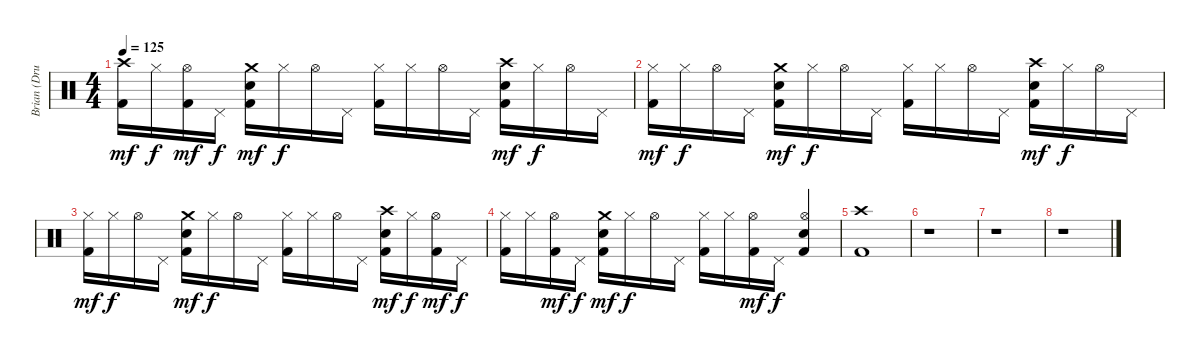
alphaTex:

\track ("Brian (Drums)" "Brian (Dru") {instrument percussion}
\staff {score}
\articulation defaults
\ts (4 4)
\tempo 125
\clef neutral
\ks c
("Crash high (hit)" "Kick (hit) 2").16{dy mf} "Hi-Hat (closed)".16{dy f} ("Hi-Hat (open)" "Kick (hit) 2").16{dy mf} "Pedal Hi-Hat (hit)".16{dy f} ("Crash medium (hit)" "Electric Snare (hit)" "Kick (hit) 2").16{dy mf} "Hi-Hat (closed)".16{dy f} "Hi-Hat (open)".16 "Pedal Hi-Hat (hit)".16 ("Hi-Hat (closed)" "Kick (hit) 2").16 "Hi-Hat (closed)".16 "Hi-Hat (open)".16 "Pedal Hi-Hat (hit)".16 ("Crash high (hit)" "Electric Snare (hit)" "Kick (hit) 2").16{dy mf} "Hi-Hat (closed)".16{dy f} "Hi-Hat (open)".16 "Pedal Hi-Hat (hit)".16 |
("Hi-Hat (closed)" "Kick (hit) 2").16{dy mf} "Hi-Hat (closed)".16{dy f} "Hi-Hat (open)".16 "Pedal Hi-Hat (hit)".16 ("Crash medium (hit)" "Electric Snare (hit)" "Kick (hit) 2").16{dy mf} "Hi-Hat (closed)".16{dy f} "Hi-Hat (open)".16 "Pedal Hi-Hat (hit)".16 ("Hi-Hat (closed)" "Kick (hit) 2").16 "Hi-Hat (closed)".16 "Hi-Hat (open)".16 "Pedal Hi-Hat (hit)".16 ("Crash high (hit)" "Electric Snare (hit)" "Kick (hit) 2").16{dy mf} "Hi-Hat (closed)".16{dy f} "Hi-Hat (open)".16 "Pedal Hi-Hat (hit)".16 |
("Hi-Hat (closed)" "Kick (hit) 2").16{dy mf} "Hi-Hat (closed)".16{dy f} "Hi-Hat (open)".16 "Pedal Hi-Hat (hit)".16 ("Crash medium (hit)" "Electric Snare (hit)" "Kick (hit) 2").16{dy mf} "Hi-Hat (closed)".16{dy f} "Hi-Hat (open)".16 "Pedal Hi-Hat (hit)".16 ("Hi-Hat (closed)" "Kick (hit) 2").16 "Hi-Hat (closed)".16 "Hi-Hat (open)".16 "Pedal Hi-Hat (hit)".16 ("Crash high (hit)" "Electric Snare (hit)" "Kick (hit) 2").16{dy mf} "Hi-Hat (closed)".16{dy f} ("Hi-Hat (open)" "Kick (hit) 2").16{dy mf} "Pedal Hi-Hat (hit)".16{dy f} |
("Hi-Hat (closed)" "Kick (hit) 2").16 "Hi-Hat (closed)".16 ("Hi-Hat (open)" "Kick (hit) 2").16{dy mf} "Pedal Hi-Hat (hit)".16{dy f} ("Crash medium (hit)" "Electric Snare (hit)" "Kick (hit) 2").16{dy mf} "Hi-Hat (closed)".16{dy f} "Hi-Hat (open)".16 "Pedal Hi-Hat (hit)".16 ("Hi-Hat (closed)" "Kick (hit) 2").16 "Hi-Hat (closed)".16 ("Hi-Hat (open)" "Kick (hit) 2").16{dy mf} "Pedal Hi-Hat (hit)".16{dy f} ("Hi-Hat (open)" "Electric Snare (hit)" "Kick (hit) 2").4 |
("Crash high (hit)" "Kick (hit) 2").1 |
r.1 |
r.1 |
r.1
